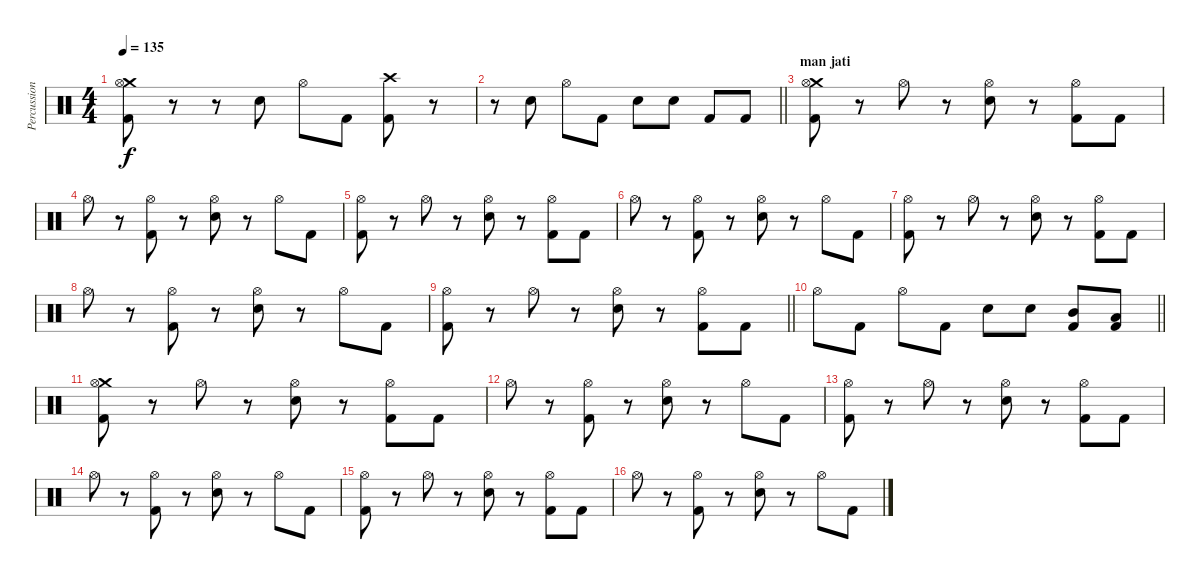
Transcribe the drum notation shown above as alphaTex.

\track ("Percussion" "Percussion") {instrument percussion}
\staff {score}
\articulation defaults
\ts (4 4)
\tempo 135
\clef neutral
\ks c
("Crash medium (hit)" "Hi-Hat (open)" "Kick (hit) 2").8{dy f} r.8 r.8 "Electric Snare (hit)".8 "Hi-Hat (open)".8 "Kick (hit) 2".8 ("Crash high (hit)" "Kick (hit) 2").8 r.8 |
\barLineRight lightlight
r.8 "Electric Snare (hit)".8 "Hi-Hat (open)".8 "Kick (hit) 2".8 "Electric Snare (hit)".8 "Electric Snare (hit)".8 "Kick (hit) 2".8 "Kick (hit) 2".8 |
\section ("" "man jati")
("Crash medium (hit)" "Hi-Hat (open)" "Kick (hit) 2").8 r.8 "Hi-Hat (open)".8 r.8 ("Hi-Hat (open)" "Electric Snare (hit)").8 r.8 ("Hi-Hat (open)" "Kick (hit) 2").8 "Kick (hit) 2".8 |
"Hi-Hat (open)".8 r.8 ("Hi-Hat (open)" "Kick (hit) 2").8 r.8 ("Hi-Hat (open)" "Electric Snare (hit)").8 r.8 "Hi-Hat (open)".8 "Kick (hit) 2".8 |
("Hi-Hat (open)" "Kick (hit) 2").8 r.8 "Hi-Hat (open)".8 r.8 ("Hi-Hat (open)" "Electric Snare (hit)").8 r.8 ("Hi-Hat (open)" "Kick (hit) 2").8 "Kick (hit) 2".8 |
"Hi-Hat (open)".8 r.8 ("Hi-Hat (open)" "Kick (hit) 2").8 r.8 ("Hi-Hat (open)" "Electric Snare (hit)").8 r.8 "Hi-Hat (open)".8 "Kick (hit) 2".8 |
("Hi-Hat (open)" "Kick (hit) 2").8 r.8 "Hi-Hat (open)".8 r.8 ("Hi-Hat (open)" "Electric Snare (hit)").8 r.8 ("Hi-Hat (open)" "Kick (hit) 2").8 "Kick (hit) 2".8 |
"Hi-Hat (open)".8 r.8 ("Hi-Hat (open)" "Kick (hit) 2").8 r.8 ("Hi-Hat (open)" "Electric Snare (hit)").8 r.8 "Hi-Hat (open)".8 "Kick (hit) 2".8 |
\barLineRight lightlight
("Hi-Hat (open)" "Kick (hit) 2").8 r.8 "Hi-Hat (open)".8 r.8 ("Hi-Hat (open)" "Electric Snare (hit)").8 r.8 ("Hi-Hat (open)" "Kick (hit) 2").8 "Kick (hit) 2".8 |
\barLineRight lightlight "Hi-Hat (open)".8 "Kick (hit) 2".8 "Hi-Hat (open)".8 "Kick (hit) 2".8 "Electric Snare (hit)".8 "Electric Snare (hit)".8
("Mid Tom (hit)" "Kick (hit) 2").8 ("Low Tom (hit)" "Kick (hit) 2").8 |
("Crash medium (hit)" "Hi-Hat (open)" "Kick (hit) 2").8 r.8 "Hi-Hat (open)".8 r.8 ("Hi-Hat (open)" "Electric Snare (hit)").8 r.8 ("Hi-Hat (open)" "Kick (hit) 2").8 "Kick (hit) 2".8 |
"Hi-Hat (open)".8 r.8 ("Hi-Hat (open)" "Kick (hit) 2").8 r.8 ("Hi-Hat (open)" "Electric Snare (hit)").8 r.8 "Hi-Hat (open)".8 "Kick (hit) 2".8 |
("Hi-Hat (open)" "Kick (hit) 2").8 r.8 "Hi-Hat (open)".8 r.8 ("Hi-Hat (open)" "Electric Snare (hit)").8 r.8 ("Hi-Hat (open)" "Kick (hit) 2").8 "Kick (hit) 2".8 |
"Hi-Hat (open)".8 r.8 ("Hi-Hat (open)" "Kick (hit) 2").8 r.8 ("Hi-Hat (open)" "Electric Snare (hit)").8 r.8 "Hi-Hat (open)".8 "Kick (hit) 2".8 |
("Hi-Hat (open)" "Kick (hit) 2").8 r.8 "Hi-Hat (open)".8 r.8 ("Hi-Hat (open)" "Electric Snare (hit)").8 r.8 ("Hi-Hat (open)" "Kick (hit) 2").8 "Kick (hit) 2".8 |
"Hi-Hat (open)".8 r.8 ("Hi-Hat (open)" "Kick (hit) 2").8 r.8 ("Hi-Hat (open)" "Electric Snare (hit)").8 r.8 "Hi-Hat (open)".8 "Kick (hit) 2".8
